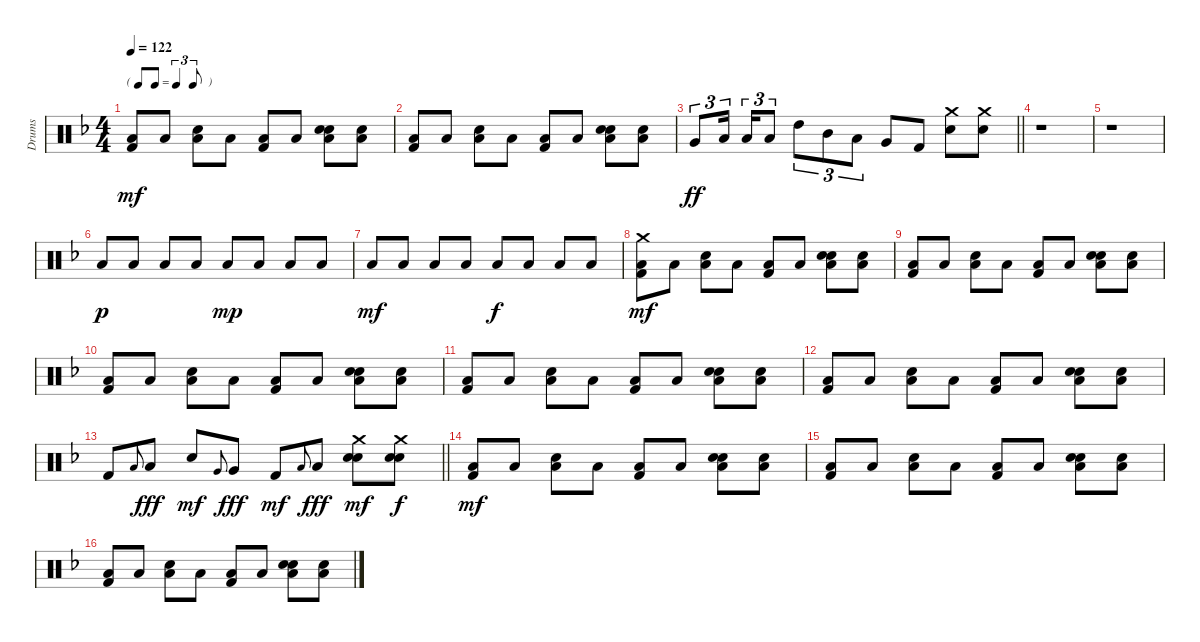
\track ("Drums" "Drums") {instrument percussion}
\staff {score}
\articulation defaults
\ts (4 4)
\tf triplet8th
\tempo 122
\clef neutral
\ks dminor
("Low Floor Tom (hit)" "Kick (hit) 2").8{dy mf} "Low Floor Tom (hit)".8 ("Low Floor Tom (hit)" "Snare (hit) 2").8 "Low Floor Tom (hit)".8 ("Low Floor Tom (hit)" "Kick (hit) 2").8 "Low Floor Tom (hit)".8 ("Hand Clap (hit)" "Low Floor Tom (hit)" "Snare (hit) 2").8 ("Hand Clap (hit)" "Low Floor Tom (hit)").8 |
("Low Floor Tom (hit)" "Kick (hit) 2").8 "Low Floor Tom (hit)".8 ("Low Floor Tom (hit)" "Snare (hit) 2").8 "Low Floor Tom (hit)".8 ("Low Floor Tom (hit)" "Kick (hit) 2").8 "Low Floor Tom (hit)".8 ("Hand Clap (hit)" "Low Floor Tom (hit)" "Snare (hit) 2").8 ("Hand Clap (hit)" "Low Floor Tom (hit)").8 |
\barLineRight lightlight "Very Low Tom (hit)".8{tu (3 2) dy ff} "Low Tom (hit)".16{tu (3 2) beam splitsecondary} "Low Tom (hit)".16{tu (3 2)} "Low Tom (hit)".8{tu (3 2)} "High Tom (hit)".8{tu (3 2)} "Mid Tom (hit)".8{tu (3 2)} "Low Tom (hit)".8{tu (3 2)} "Very Low Tom (hit)".8 "Kick (hit) 2".8
("Crash medium (hit)" "Snare (hit) 2").8 ("Crash medium (hit)" "Snare (hit) 2").8 |
r.1 |
r.1 |
"Low Tom (hit)".8{dy p} "Low Tom (hit)".8 "Low Tom (hit)".8 "Low Tom (hit)".8 "Low Tom (hit)".8{dy mp} "Low Tom (hit)".8 "Low Tom (hit)".8 "Low Tom (hit)".8 |
"Low Tom (hit)".8{dy mf} "Low Tom (hit)".8 "Low Tom (hit)".8 "Low Tom (hit)".8 "Low Tom (hit)".8{dy f} "Low Tom (hit)".8 "Low Tom (hit)".8 "Low Tom (hit)".8 |
("Crash medium (hit)" "Low Floor Tom (hit)" "Kick (hit) 2").8{dy mf} "Low Floor Tom (hit)".8 ("Low Floor Tom (hit)" "Snare (hit) 2").8 "Low Floor Tom (hit)".8 ("Low Floor Tom (hit)" "Kick (hit) 2").8 "Low Floor Tom (hit)".8 ("Hand Clap (hit)" "Low Floor Tom (hit)" "Snare (hit) 2").8 ("Hand Clap (hit)" "Low Floor Tom (hit)").8 |
("Low Floor Tom (hit)" "Kick (hit) 2").8 "Low Floor Tom (hit)".8 ("Low Floor Tom (hit)" "Snare (hit) 2").8 "Low Floor Tom (hit)".8 ("Low Floor Tom (hit)" "Kick (hit) 2").8 "Low Floor Tom (hit)".8 ("Hand Clap (hit)" "Low Floor Tom (hit)" "Snare (hit) 2").8 ("Hand Clap (hit)" "Low Floor Tom (hit)").8 |
("Low Floor Tom (hit)" "Kick (hit) 2").8 "Low Floor Tom (hit)".8 ("Low Floor Tom (hit)" "Snare (hit) 2").8 "Low Floor Tom (hit)".8 ("Low Floor Tom (hit)" "Kick (hit) 2").8 "Low Floor Tom (hit)".8 ("Hand Clap (hit)" "Low Floor Tom (hit)" "Snare (hit) 2").8 ("Hand Clap (hit)" "Low Floor Tom (hit)").8 |
("Low Floor Tom (hit)" "Kick (hit) 2").8 "Low Floor Tom (hit)".8 ("Low Floor Tom (hit)" "Snare (hit) 2").8 "Low Floor Tom (hit)".8 ("Low Floor Tom (hit)" "Kick (hit) 2").8 "Low Floor Tom (hit)".8 ("Hand Clap (hit)" "Low Floor Tom (hit)" "Snare (hit) 2").8 ("Hand Clap (hit)" "Low Floor Tom (hit)").8 |
("Low Floor Tom (hit)" "Kick (hit) 2").8 "Low Floor Tom (hit)".8 ("Low Floor Tom (hit)" "Snare (hit) 2").8 "Low Floor Tom (hit)".8 ("Low Floor Tom (hit)" "Kick (hit) 2").8 "Low Floor Tom (hit)".8 ("Hand Clap (hit)" "Low Floor Tom (hit)" "Snare (hit) 2").8 ("Hand Clap (hit)" "Low Floor Tom (hit)").8 |
\barLineRight lightlight "Kick (hit) 2".8 "Low Tom (hit)".8{gr onbeat} "Low Tom (hit)".8{dy fff} "Snare (hit) 2".8{dy mf} "Very Low Tom (hit)".8{gr onbeat} "Very Low Tom (hit)".8{dy fff} "Kick (hit) 2".8{dy mf} "Low Floor Tom (hit)".8{gr onbeat} "Low Floor Tom (hit)".8{dy fff}
("Crash medium (hit)" "Hand Clap (hit)" "Snare (hit) 2").8{dy mf} ("Crash medium (hit)" "Hand Clap (hit)" "Snare (hit) 2").8{dy f} |
("Low Floor Tom (hit)" "Kick (hit) 2").8{dy mf} "Low Floor Tom (hit)".8 ("Low Floor Tom (hit)" "Snare (hit) 2").8 "Low Floor Tom (hit)".8 ("Low Floor Tom (hit)" "Kick (hit) 2").8 "Low Floor Tom (hit)".8 ("Hand Clap (hit)" "Low Floor Tom (hit)" "Snare (hit) 2").8 ("Hand Clap (hit)" "Low Floor Tom (hit)").8 |
("Low Floor Tom (hit)" "Kick (hit) 2").8 "Low Floor Tom (hit)".8 ("Low Floor Tom (hit)" "Snare (hit) 2").8 "Low Floor Tom (hit)".8 ("Low Floor Tom (hit)" "Kick (hit) 2").8 "Low Floor Tom (hit)".8 ("Hand Clap (hit)" "Low Floor Tom (hit)" "Snare (hit) 2").8 ("Hand Clap (hit)" "Low Floor Tom (hit)").8 |
("Low Floor Tom (hit)" "Kick (hit) 2").8 "Low Floor Tom (hit)".8 ("Low Floor Tom (hit)" "Snare (hit) 2").8 "Low Floor Tom (hit)".8 ("Low Floor Tom (hit)" "Kick (hit) 2").8 "Low Floor Tom (hit)".8 ("Hand Clap (hit)" "Low Floor Tom (hit)" "Snare (hit) 2").8 ("Hand Clap (hit)" "Low Floor Tom (hit)").8
